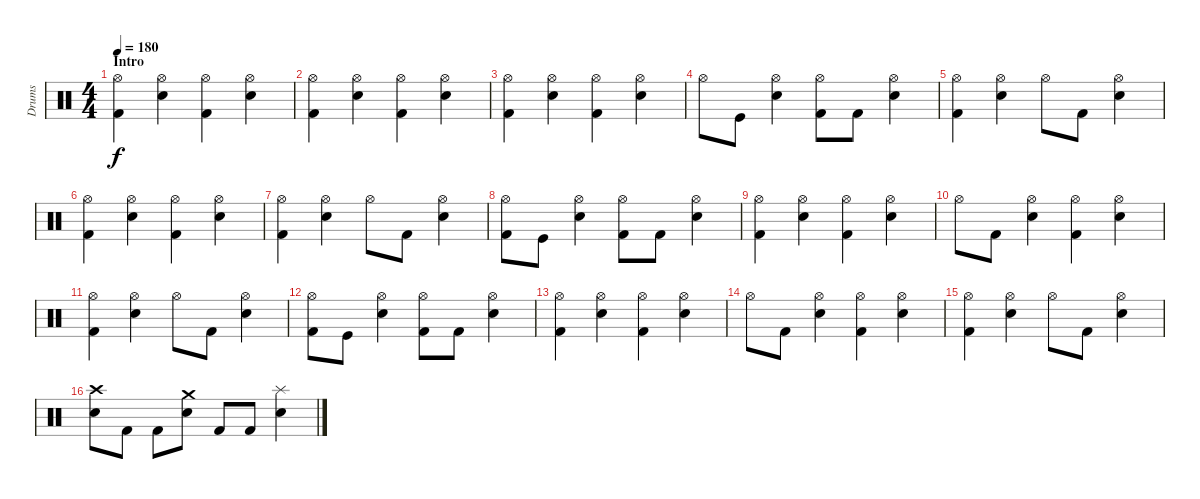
\track ("Drums" "Drums") {instrument percussion}
\staff {score}
\articulation defaults
\ts (4 4)
\section ("" "Intro")
\tempo 180
\clef neutral
\ks c
("Hi-Hat (open)" "Kick (hit) 2").4{dy f} ("Hi-Hat (open)" "Electric Snare (hit)").4 ("Hi-Hat (open)" "Kick (hit) 2").4 ("Hi-Hat (open)" "Electric Snare (hit)").4 |
("Hi-Hat (open)" "Kick (hit) 2").4 ("Hi-Hat (open)" "Electric Snare (hit)").4 ("Hi-Hat (open)" "Kick (hit) 2").4 ("Hi-Hat (open)" "Electric Snare (hit)").4 |
("Hi-Hat (open)" "Kick (hit) 2").4 ("Hi-Hat (open)" "Electric Snare (hit)").4 ("Hi-Hat (open)" "Kick (hit) 2").4 ("Hi-Hat (open)" "Electric Snare (hit)").4 |
"Hi-Hat (open)".8 "Kick (hit)".8 ("Hi-Hat (open)" "Electric Snare (hit)").4 ("Hi-Hat (open)" "Kick (hit) 2").8 "Kick (hit) 2".8 ("Hi-Hat (open)" "Electric Snare (hit)").4 |
("Hi-Hat (open)" "Kick (hit) 2").4 ("Hi-Hat (open)" "Electric Snare (hit)").4 "Hi-Hat (open)".8 "Kick (hit) 2".8 ("Hi-Hat (open)" "Electric Snare (hit)").4 |
("Hi-Hat (open)" "Kick (hit) 2").4 ("Hi-Hat (open)" "Electric Snare (hit)").4 ("Hi-Hat (open)" "Kick (hit) 2").4 ("Hi-Hat (open)" "Electric Snare (hit)").4 |
("Hi-Hat (open)" "Kick (hit) 2").4 ("Hi-Hat (open)" "Electric Snare (hit)").4 "Hi-Hat (open)".8 "Kick (hit) 2".8 ("Hi-Hat (open)" "Electric Snare (hit)").4 |
("Hi-Hat (open)" "Kick (hit) 2").8 "Kick (hit)".8 ("Hi-Hat (open)" "Electric Snare (hit)").4 ("Hi-Hat (open)" "Kick (hit) 2").8 "Kick (hit) 2".8 ("Hi-Hat (open)" "Electric Snare (hit)").4 |
("Hi-Hat (open)" "Kick (hit) 2").4 ("Hi-Hat (open)" "Electric Snare (hit)").4 ("Hi-Hat (open)" "Kick (hit) 2").4 ("Hi-Hat (open)" "Electric Snare (hit)").4 |
"Hi-Hat (open)".8 "Kick (hit) 2".8 ("Hi-Hat (open)" "Electric Snare (hit)").4 ("Hi-Hat (open)" "Kick (hit) 2").4 ("Hi-Hat (open)" "Electric Snare (hit)").4 |
("Hi-Hat (open)" "Kick (hit) 2").4 ("Hi-Hat (open)" "Electric Snare (hit)").4 "Hi-Hat (open)".8 "Kick (hit) 2".8 ("Hi-Hat (open)" "Electric Snare (hit)").4 |
("Hi-Hat (open)" "Kick (hit) 2").8 "Kick (hit)".8 ("Hi-Hat (open)" "Electric Snare (hit)").4 ("Hi-Hat (open)" "Kick (hit) 2").8 "Kick (hit) 2".8 ("Hi-Hat (open)" "Electric Snare (hit)").4 |
("Hi-Hat (open)" "Kick (hit) 2").4 ("Hi-Hat (open)" "Electric Snare (hit)").4 ("Hi-Hat (open)" "Kick (hit) 2").4 ("Hi-Hat (open)" "Electric Snare (hit)").4 |
"Hi-Hat (open)".8 "Kick (hit) 2".8 ("Hi-Hat (open)" "Electric Snare (hit)").4 ("Hi-Hat (open)" "Kick (hit) 2").4 ("Hi-Hat (open)" "Electric Snare (hit)").4 |
("Hi-Hat (open)" "Kick (hit) 2").4 ("Hi-Hat (open)" "Electric Snare (hit)").4 "Hi-Hat (open)".8 "Kick (hit) 2".8 ("Hi-Hat (open)" "Electric Snare (hit)").4 |
("Crash high (hit)" "Electric Snare (hit)").8 "Kick (hit) 2".8 "Kick (hit) 2".8 ("Crash medium (hit)" "Electric Snare (hit)").8 "Kick (hit) 2".8 "Kick (hit) 2".8 ("Splash (hit)" "Electric Snare (hit)").4
